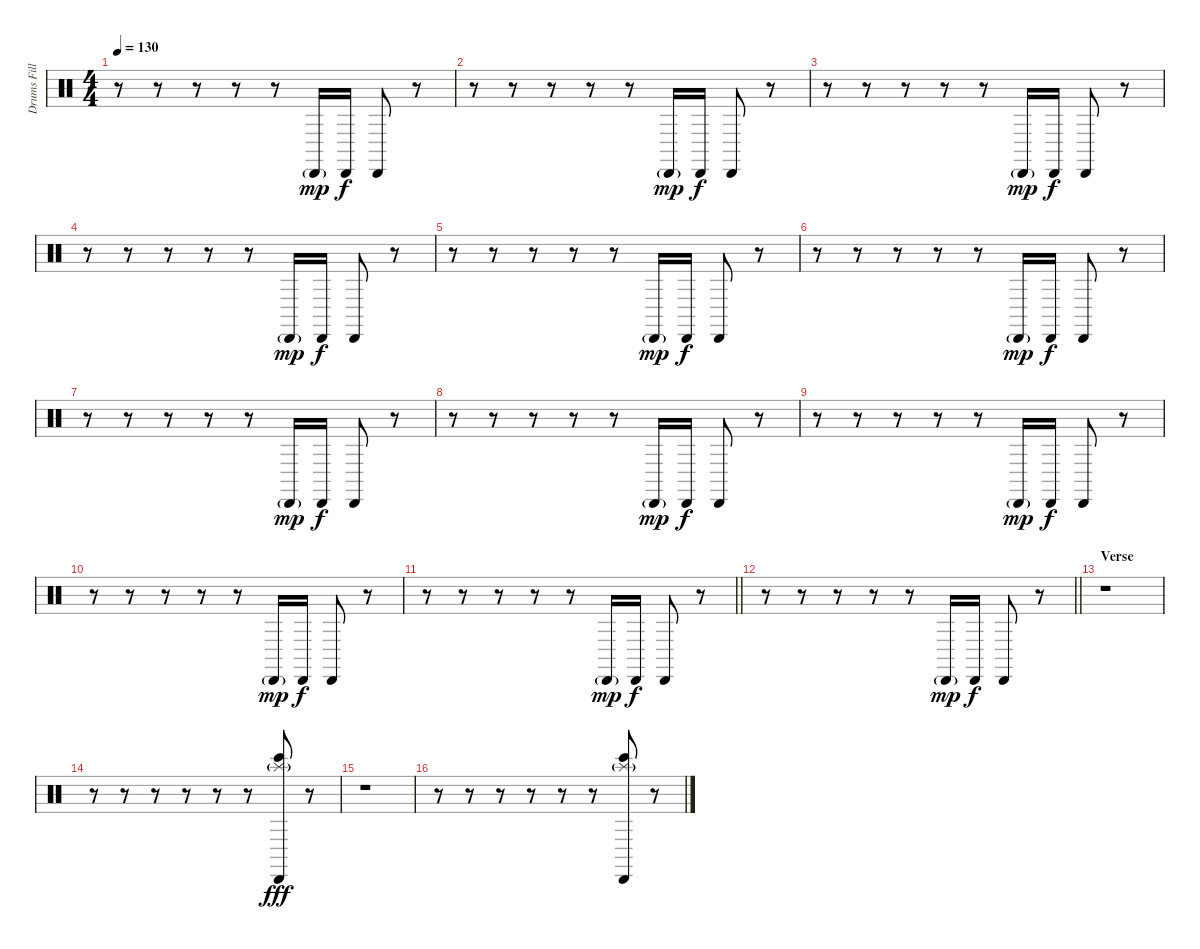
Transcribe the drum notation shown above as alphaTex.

\track ("Drums Fill" "Drums Fill") {instrument percussion}
\staff {score}
\articulation defaults
\ts (4 4)
\tempo 130
\clef neutral
\ks c
r.8{dy f} r.8 r.8 r.8 r.8 "Cabasa (hit)"{g}.16{dy mp} "Cabasa (hit)".16{dy f} "Cabasa (hit)".8 r.8 |
r.8 r.8 r.8 r.8 r.8 "Cabasa (hit)"{g}.16{dy mp} "Cabasa (hit)".16{dy f} "Cabasa (hit)".8 r.8 |
r.8 r.8 r.8 r.8 r.8 "Cabasa (hit)"{g}.16{dy mp} "Cabasa (hit)".16{dy f} "Cabasa (hit)".8 r.8 |
r.8 r.8 r.8 r.8 r.8 "Cabasa (hit)"{g}.16{dy mp} "Cabasa (hit)".16{dy f} "Cabasa (hit)".8 r.8 |
r.8 r.8 r.8 r.8 r.8 "Cabasa (hit)"{g}.16{dy mp} "Cabasa (hit)".16{dy f} "Cabasa (hit)".8 r.8 |
r.8 r.8 r.8 r.8 r.8 "Cabasa (hit)"{g}.16{dy mp} "Cabasa (hit)".16{dy f} "Cabasa (hit)".8 r.8 |
r.8 r.8 r.8 r.8 r.8 "Cabasa (hit)"{g}.16{dy mp} "Cabasa (hit)".16{dy f} "Cabasa (hit)".8 r.8 |
r.8 r.8 r.8 r.8 r.8 "Cabasa (hit)"{g}.16{dy mp} "Cabasa (hit)".16{dy f} "Cabasa (hit)".8 r.8 |
r.8 r.8 r.8 r.8 r.8 "Cabasa (hit)"{g}.16{dy mp} "Cabasa (hit)".16{dy f} "Cabasa (hit)".8 r.8 |
r.8 r.8 r.8 r.8 r.8 "Cabasa (hit)"{g}.16{dy mp} "Cabasa (hit)".16{dy f} "Cabasa (hit)".8 r.8 |
\barLineRight lightlight
r.8 r.8 r.8 r.8 r.8 "Cabasa (hit)"{g}.16{dy mp} "Cabasa (hit)".16{dy f} "Cabasa (hit)".8 r.8 |
\barLineRight lightlight
r.8 r.8 r.8 r.8 r.8 "Cabasa (hit)"{g}.16{dy mp} "Cabasa (hit)".16{dy f} "Cabasa (hit)".8 r.8 |
\section ("" "Verse")
r.1 |
r.8 r.8 r.8 r.8 r.8 r.8 ("Splash (hit)"{g} "Cabasa (hit)" "Bongo High (hit)").8{dy fff} r.8 |
r.1 |
r.8 r.8 r.8 r.8 r.8 r.8 ("Splash (hit)"{g} "Cabasa (hit)" "Bongo High (hit)").8 r.8
